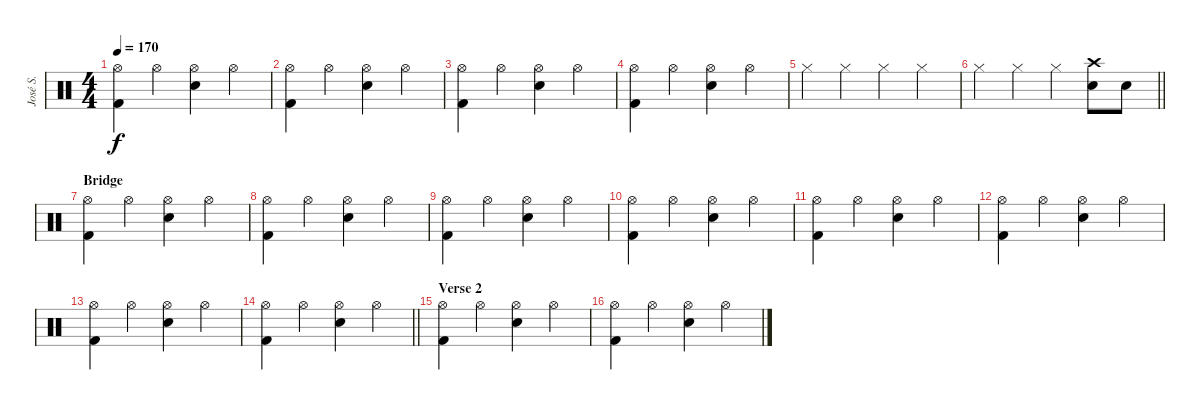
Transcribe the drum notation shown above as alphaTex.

\track ("José S." "José S.") {instrument percussion}
\staff {score}
\articulation defaults
\ts (4 4)
\tempo 170
\clef neutral
\ks c
("Hi-Hat (open)" "Kick (hit) 2").4{dy f} "Hi-Hat (open)".4 ("Hi-Hat (open)" "Electric Snare (hit)").4 "Hi-Hat (open)".4 |
("Hi-Hat (open)" "Kick (hit) 2").4 "Hi-Hat (open)".4 ("Hi-Hat (open)" "Electric Snare (hit)").4 "Hi-Hat (open)".4 |
("Hi-Hat (open)" "Kick (hit) 2").4 "Hi-Hat (open)".4 ("Hi-Hat (open)" "Electric Snare (hit)").4 "Hi-Hat (open)".4 |
("Hi-Hat (open)" "Kick (hit) 2").4 "Hi-Hat (open)".4 ("Hi-Hat (open)" "Electric Snare (hit)").4 "Hi-Hat (open)".4 |
"Hi-Hat (closed)".4 "Hi-Hat (closed)".4 "Hi-Hat (closed)".4 "Hi-Hat (closed)".4 |
\barLineRight lightlight "Hi-Hat (closed)".4 "Hi-Hat (closed)".4 "Hi-Hat (closed)".4
("Crash high (hit)" "Electric Snare (hit)").8 "Electric Snare (hit)".8 |
\section ("" "Bridge")
("Hi-Hat (open)" "Kick (hit) 2").4 "Hi-Hat (open)".4 ("Hi-Hat (open)" "Electric Snare (hit)").4 "Hi-Hat (open)".4 |
("Hi-Hat (open)" "Kick (hit) 2").4 "Hi-Hat (open)".4 ("Hi-Hat (open)" "Electric Snare (hit)").4 "Hi-Hat (open)".4 |
("Hi-Hat (open)" "Kick (hit) 2").4 "Hi-Hat (open)".4 ("Hi-Hat (open)" "Electric Snare (hit)").4 "Hi-Hat (open)".4 |
("Hi-Hat (open)" "Kick (hit) 2").4 "Hi-Hat (open)".4 ("Hi-Hat (open)" "Electric Snare (hit)").4 "Hi-Hat (open)".4 |
("Hi-Hat (open)" "Kick (hit) 2").4 "Hi-Hat (open)".4 ("Hi-Hat (open)" "Electric Snare (hit)").4 "Hi-Hat (open)".4 |
("Hi-Hat (open)" "Kick (hit) 2").4 "Hi-Hat (open)".4 ("Hi-Hat (open)" "Electric Snare (hit)").4 "Hi-Hat (open)".4 |
("Hi-Hat (open)" "Kick (hit) 2").4 "Hi-Hat (open)".4 ("Hi-Hat (open)" "Electric Snare (hit)").4 "Hi-Hat (open)".4 |
\barLineRight lightlight
("Hi-Hat (open)" "Kick (hit) 2").4 "Hi-Hat (open)".4 ("Hi-Hat (open)" "Electric Snare (hit)").4 "Hi-Hat (open)".4 |
\section ("" "Verse 2")
("Hi-Hat (open)" "Kick (hit) 2").4 "Hi-Hat (open)".4 ("Hi-Hat (open)" "Electric Snare (hit)").4 "Hi-Hat (open)".4 |
("Hi-Hat (open)" "Kick (hit) 2").4 "Hi-Hat (open)".4 ("Hi-Hat (open)" "Electric Snare (hit)").4 "Hi-Hat (open)".4
